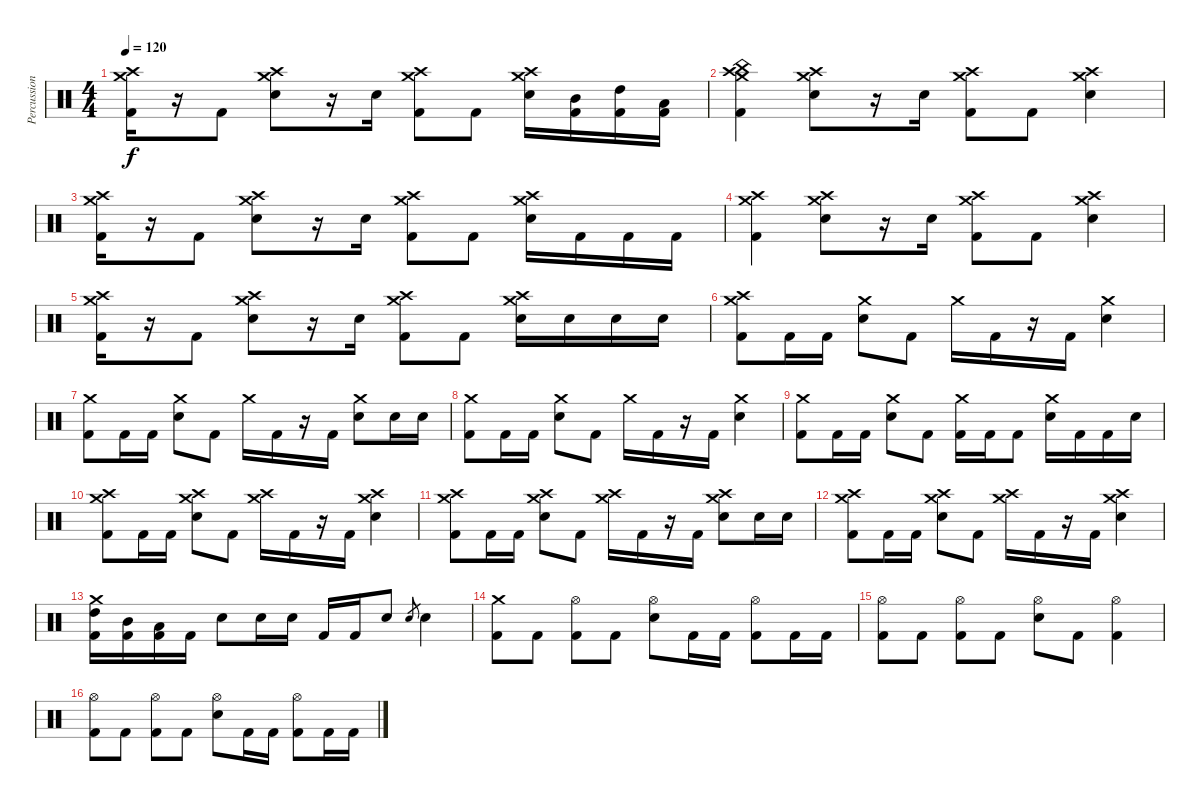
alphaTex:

\track ("Percussion" "Percussion") {instrument percussion}
\staff {score}
\articulation defaults
\ts (4 4)
\tempo 120
\clef neutral
\ks c
("Crash high (hit)" "Crash medium (hit)" "Kick (hit) 2").16{dy f} r.16 "Kick (hit) 2".8 ("Crash high (hit)" "Crash medium (hit)" "Electric Snare (hit)").8 r.16 "Electric Snare (hit)".16 ("Crash high (hit)" "Crash medium (hit)" "Kick (hit) 2").8 "Kick (hit) 2".8 ("Crash high (hit)" "Crash medium (hit)" "Electric Snare (hit)").16 ("Mid Tom (hit)" "Kick (hit) 2").16 ("High Tom (hit)" "Kick (hit) 2").16 ("Low Tom (hit)" "Kick (hit) 2").16 |
("Crash high (hit)" "Crash medium (hit)" "China (hit)" "Kick (hit) 2").4 ("Crash high (hit)" "Crash medium (hit)" "Electric Snare (hit)").8 r.16 "Electric Snare (hit)".16 ("Crash high (hit)" "Crash medium (hit)" "Kick (hit) 2").8 "Kick (hit) 2".8 ("Crash high (hit)" "Crash medium (hit)" "Electric Snare (hit)").4 |
("Crash high (hit)" "Crash medium (hit)" "Kick (hit) 2").16 r.16 "Kick (hit) 2".8 ("Crash high (hit)" "Crash medium (hit)" "Electric Snare (hit)").8 r.16 "Electric Snare (hit)".16 ("Crash high (hit)" "Crash medium (hit)" "Kick (hit) 2").8 "Kick (hit) 2".8 ("Crash high (hit)" "Crash medium (hit)" "Electric Snare (hit)").16 "Kick (hit) 2".16 "Kick (hit) 2".16 "Kick (hit) 2".16 |
("Crash high (hit)" "Crash medium (hit)" "Kick (hit) 2").4 ("Crash high (hit)" "Crash medium (hit)" "Electric Snare (hit)").8 r.16 "Electric Snare (hit)".16 ("Crash high (hit)" "Crash medium (hit)" "Kick (hit) 2").8 "Kick (hit) 2".8 ("Crash high (hit)" "Crash medium (hit)" "Electric Snare (hit)").4 |
("Crash high (hit)" "Crash medium (hit)" "Kick (hit) 2").16 r.16 "Kick (hit) 2".8 ("Crash high (hit)" "Crash medium (hit)" "Electric Snare (hit)").8 r.16 "Electric Snare (hit)".16 ("Crash high (hit)" "Crash medium (hit)" "Kick (hit) 2").8 "Kick (hit) 2".8 ("Crash high (hit)" "Crash medium (hit)" "Electric Snare (hit)").16 "Electric Snare (hit)".16 "Electric Snare (hit)".16 "Electric Snare (hit)".16 |
("Crash medium (hit)" "Crash high (hit)" "Kick (hit) 2").8 "Kick (hit) 2".16 "Kick (hit) 2".16 ("Crash medium (hit)" "Electric Snare (hit)").8 "Kick (hit) 2".8 "Crash medium (hit)".16 "Kick (hit) 2".16 r.16 "Kick (hit) 2".16 ("Crash medium (hit)" "Electric Snare (hit)").4 |
("Crash medium (hit)" "Kick (hit) 2").8 "Kick (hit) 2".16 "Kick (hit) 2".16 ("Crash medium (hit)" "Electric Snare (hit)").8 "Kick (hit) 2".8 "Crash medium (hit)".16 "Kick (hit) 2".16 r.16 "Kick (hit) 2".16 ("Crash medium (hit)" "Electric Snare (hit)").8 "Electric Snare (hit)".16 "Electric Snare (hit)".16 |
("Crash medium (hit)" "Kick (hit) 2").8 "Kick (hit) 2".16 "Kick (hit) 2".16 ("Crash medium (hit)" "Electric Snare (hit)").8 "Kick (hit) 2".8 "Crash medium (hit)".16 "Kick (hit) 2".16 r.16 "Kick (hit) 2".16 ("Crash medium (hit)" "Electric Snare (hit)").4 |
("Crash medium (hit)" "Kick (hit) 2").8 "Kick (hit) 2".16 "Kick (hit) 2".16 ("Crash medium (hit)" "Electric Snare (hit)").8 "Kick (hit) 2".8 ("Crash medium (hit)" "Kick (hit) 2").16 "Kick (hit) 2".16 "Kick (hit) 2".8 ("Crash medium (hit)" "Electric Snare (hit)").16 "Kick (hit) 2".16 "Kick (hit) 2".16 "Electric Snare (hit)".16 |
("Crash medium (hit)" "Crash high (hit)" "Kick (hit) 2").8 "Kick (hit) 2".16 "Kick (hit) 2".16 ("Crash medium (hit)" "Crash high (hit)" "Electric Snare (hit)").8 "Kick (hit) 2".8 ("Crash medium (hit)" "Crash high (hit)").16 "Kick (hit) 2".16 r.16 "Kick (hit) 2".16 ("Crash medium (hit)" "Crash high (hit)" "Electric Snare (hit)").4 |
("Crash medium (hit)" "Crash high (hit)" "Kick (hit) 2").8 "Kick (hit) 2".16 "Kick (hit) 2".16 ("Crash medium (hit)" "Crash high (hit)" "Electric Snare (hit)").8 "Kick (hit) 2".8 ("Crash medium (hit)" "Crash high (hit)").16 "Kick (hit) 2".16 r.16 "Kick (hit) 2".16 ("Crash medium (hit)" "Crash high (hit)" "Electric Snare (hit)").8 "Electric Snare (hit)".16 "Electric Snare (hit)".16 |
("Crash medium (hit)" "Crash high (hit)" "Kick (hit) 2").8 "Kick (hit) 2".16 "Kick (hit) 2".16 ("Crash medium (hit)" "Crash high (hit)" "Electric Snare (hit)").8 "Kick (hit) 2".8 ("Crash medium (hit)" "Crash high (hit)").16 "Kick (hit) 2".16 r.16 "Kick (hit) 2".16 ("Crash medium (hit)" "Crash high (hit)" "Electric Snare (hit)").4 |
("Crash medium (hit)" "High Tom (hit)" "Kick (hit) 2").16 ("Mid Tom (hit)" "Kick (hit) 2").16 ("Low Tom (hit)" "Kick (hit) 2").16 "Kick (hit) 2".16 "Electric Snare (hit)".8 "Electric Snare (hit)".16 "Electric Snare (hit)".16 "Kick (hit) 2".16 "Kick (hit) 2".16 "Electric Snare (hit)".8 "Electric Snare (hit)".8{gr} "Electric Snare (hit)".4 |
("Crash medium (hit)" "Kick (hit) 2").8 "Kick (hit) 2".8 ("Hi-Hat (open)" "Kick (hit) 2").8 "Kick (hit) 2".8 ("Hi-Hat (open)" "Electric Snare (hit)").8 "Kick (hit) 2".16 "Kick (hit) 2".16 ("Hi-Hat (open)" "Kick (hit) 2").8 "Kick (hit) 2".16 "Kick (hit) 2".16 |
("Hi-Hat (open)" "Kick (hit) 2").8 "Kick (hit) 2".8 ("Hi-Hat (open)" "Kick (hit) 2").8 "Kick (hit) 2".8 ("Hi-Hat (open)" "Electric Snare (hit)").8 "Kick (hit) 2".8 ("Hi-Hat (open)" "Kick (hit) 2").4 |
("Hi-Hat (open)" "Kick (hit) 2").8 "Kick (hit) 2".8 ("Hi-Hat (open)" "Kick (hit) 2").8 "Kick (hit) 2".8 ("Hi-Hat (open)" "Electric Snare (hit)").8 "Kick (hit) 2".16 "Kick (hit) 2".16 ("Hi-Hat (open)" "Kick (hit) 2").8 "Kick (hit) 2".16 "Kick (hit) 2".16
